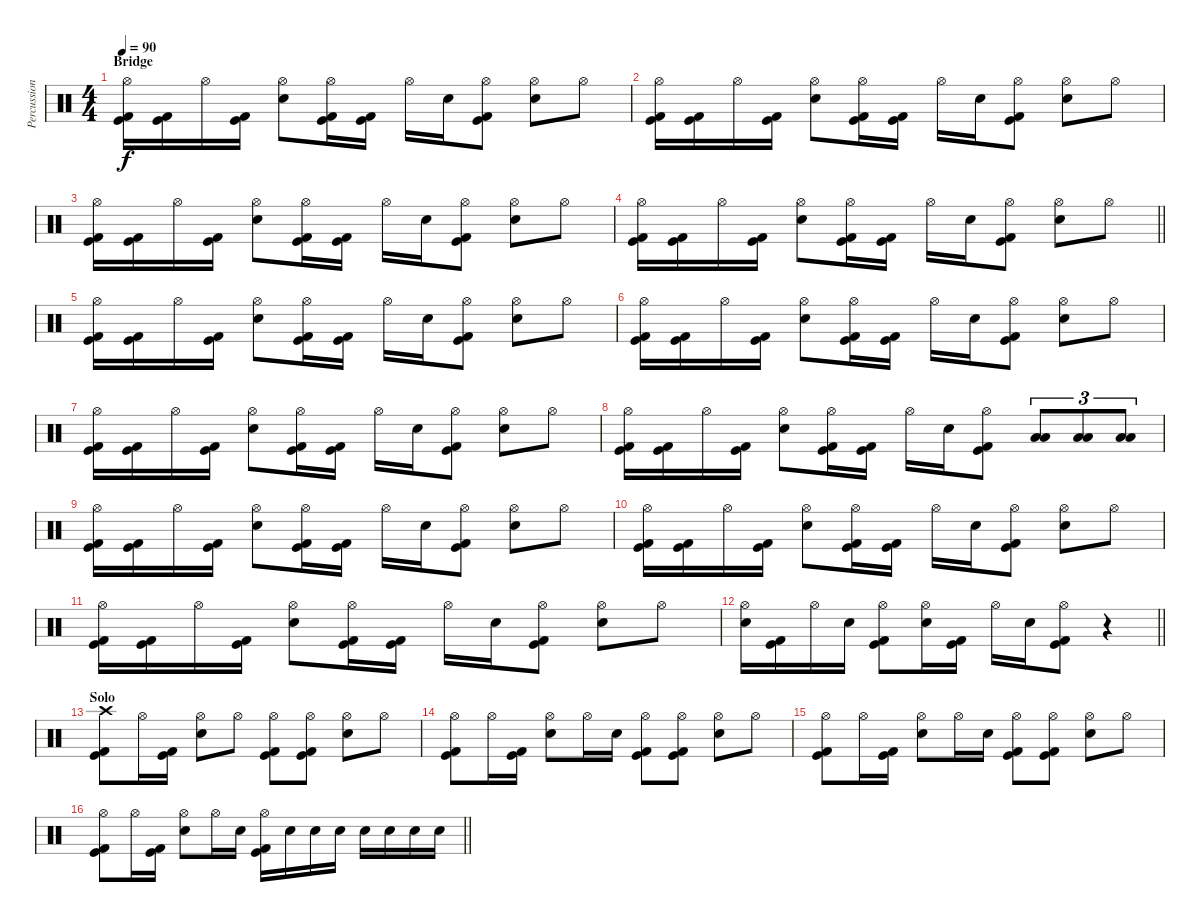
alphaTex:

\track ("Percussion" "Percussion") {instrument percussion}
\staff {score}
\articulation defaults
\ts (4 4)
\section ("" "Bridge")
\tempo 90
\clef neutral
\ks c
("Hi-Hat (open)" "Kick (hit)" "Kick (hit) 2").16{dy f} ("Kick (hit)" "Kick (hit) 2").16 "Hi-Hat (open)".16 ("Kick (hit)" "Kick (hit) 2").16 ("Hi-Hat (open)" "Electric Snare (hit)").8 ("Hi-Hat (open)" "Kick (hit)" "Kick (hit) 2").16 ("Kick (hit)" "Kick (hit) 2").16 "Hi-Hat (open)".16 "Electric Snare (hit)".16 ("Hi-Hat (open)" "Kick (hit)" "Kick (hit) 2").8 ("Hi-Hat (open)" "Electric Snare (hit)").8 "Hi-Hat (open)".8 |
("Hi-Hat (open)" "Kick (hit)" "Kick (hit) 2").16 ("Kick (hit)" "Kick (hit) 2").16 "Hi-Hat (open)".16 ("Kick (hit)" "Kick (hit) 2").16 ("Hi-Hat (open)" "Electric Snare (hit)").8 ("Hi-Hat (open)" "Kick (hit)" "Kick (hit) 2").16 ("Kick (hit)" "Kick (hit) 2").16 "Hi-Hat (open)".16 "Electric Snare (hit)".16 ("Hi-Hat (open)" "Kick (hit)" "Kick (hit) 2").8 ("Hi-Hat (open)" "Electric Snare (hit)").8 "Hi-Hat (open)".8 |
("Hi-Hat (open)" "Kick (hit)" "Kick (hit) 2").16 ("Kick (hit)" "Kick (hit) 2").16 "Hi-Hat (open)".16 ("Kick (hit)" "Kick (hit) 2").16 ("Hi-Hat (open)" "Electric Snare (hit)").8 ("Hi-Hat (open)" "Kick (hit)" "Kick (hit) 2").16 ("Kick (hit)" "Kick (hit) 2").16 "Hi-Hat (open)".16 "Electric Snare (hit)".16 ("Hi-Hat (open)" "Kick (hit)" "Kick (hit) 2").8 ("Hi-Hat (open)" "Electric Snare (hit)").8 "Hi-Hat (open)".8 |
\barLineRight lightlight
("Hi-Hat (open)" "Kick (hit)" "Kick (hit) 2").16 ("Kick (hit)" "Kick (hit) 2").16 "Hi-Hat (open)".16 ("Kick (hit)" "Kick (hit) 2").16 ("Hi-Hat (open)" "Electric Snare (hit)").8 ("Hi-Hat (open)" "Kick (hit)" "Kick (hit) 2").16 ("Kick (hit)" "Kick (hit) 2").16 "Hi-Hat (open)".16 "Electric Snare (hit)".16 ("Hi-Hat (open)" "Kick (hit)" "Kick (hit) 2").8 ("Hi-Hat (open)" "Electric Snare (hit)").8 "Hi-Hat (open)".8 |
\section ("" "")
("Hi-Hat (open)" "Kick (hit)" "Kick (hit) 2").16 ("Kick (hit)" "Kick (hit) 2").16 "Hi-Hat (open)".16 ("Kick (hit)" "Kick (hit) 2").16 ("Hi-Hat (open)" "Electric Snare (hit)").8 ("Hi-Hat (open)" "Kick (hit)" "Kick (hit) 2").16 ("Kick (hit)" "Kick (hit) 2").16 "Hi-Hat (open)".16 "Electric Snare (hit)".16 ("Hi-Hat (open)" "Kick (hit)" "Kick (hit) 2").8 ("Hi-Hat (open)" "Electric Snare (hit)").8 "Hi-Hat (open)".8 |
("Hi-Hat (open)" "Kick (hit)" "Kick (hit) 2").16 ("Kick (hit)" "Kick (hit) 2").16 "Hi-Hat (open)".16 ("Kick (hit)" "Kick (hit) 2").16 ("Hi-Hat (open)" "Electric Snare (hit)").8 ("Hi-Hat (open)" "Kick (hit)" "Kick (hit) 2").16 ("Kick (hit)" "Kick (hit) 2").16 "Hi-Hat (open)".16 "Electric Snare (hit)".16 ("Hi-Hat (open)" "Kick (hit)" "Kick (hit) 2").8 ("Hi-Hat (open)" "Electric Snare (hit)").8 "Hi-Hat (open)".8 |
("Hi-Hat (open)" "Kick (hit)" "Kick (hit) 2").16 ("Kick (hit)" "Kick (hit) 2").16 "Hi-Hat (open)".16 ("Kick (hit)" "Kick (hit) 2").16 ("Hi-Hat (open)" "Electric Snare (hit)").8 ("Hi-Hat (open)" "Kick (hit)" "Kick (hit) 2").16 ("Kick (hit)" "Kick (hit) 2").16 "Hi-Hat (open)".16 "Electric Snare (hit)".16 ("Hi-Hat (open)" "Kick (hit)" "Kick (hit) 2").8 ("Hi-Hat (open)" "Electric Snare (hit)").8 "Hi-Hat (open)".8 |
("Hi-Hat (open)" "Kick (hit)" "Kick (hit) 2").16 ("Kick (hit)" "Kick (hit) 2").16 "Hi-Hat (open)".16 ("Kick (hit)" "Kick (hit) 2").16 ("Hi-Hat (open)" "Electric Snare (hit)").8 ("Hi-Hat (open)" "Kick (hit)" "Kick (hit) 2").16 ("Kick (hit)" "Kick (hit) 2").16 "Hi-Hat (open)".16 "Electric Snare (hit)".16 ("Hi-Hat (open)" "Kick (hit)" "Kick (hit) 2").8 ("Low Tom (hit)" "Low Floor Tom (hit)").8{tu (3 2)} ("Low Tom (hit)" "Low Floor Tom (hit)").8{tu (3 2)} ("Low Tom (hit)" "Low Floor Tom (hit)").8{tu (3 2)} |
("Hi-Hat (open)" "Kick (hit)" "Kick (hit) 2").16 ("Kick (hit)" "Kick (hit) 2").16 "Hi-Hat (open)".16 ("Kick (hit)" "Kick (hit) 2").16 ("Hi-Hat (open)" "Electric Snare (hit)").8 ("Hi-Hat (open)" "Kick (hit)" "Kick (hit) 2").16 ("Kick (hit)" "Kick (hit) 2").16 "Hi-Hat (open)".16 "Electric Snare (hit)".16 ("Hi-Hat (open)" "Kick (hit)" "Kick (hit) 2").8 ("Hi-Hat (open)" "Electric Snare (hit)").8 "Hi-Hat (open)".8 |
("Hi-Hat (open)" "Kick (hit)" "Kick (hit) 2").16 ("Kick (hit)" "Kick (hit) 2").16 "Hi-Hat (open)".16 ("Kick (hit)" "Kick (hit) 2").16 ("Hi-Hat (open)" "Electric Snare (hit)").8 ("Hi-Hat (open)" "Kick (hit)" "Kick (hit) 2").16 ("Kick (hit)" "Kick (hit) 2").16 "Hi-Hat (open)".16 "Electric Snare (hit)".16 ("Hi-Hat (open)" "Kick (hit)" "Kick (hit) 2").8 ("Hi-Hat (open)" "Electric Snare (hit)").8 "Hi-Hat (open)".8 |
("Hi-Hat (open)" "Kick (hit)" "Kick (hit) 2").16 ("Kick (hit)" "Kick (hit) 2").16 "Hi-Hat (open)".16 ("Kick (hit)" "Kick (hit) 2").16 ("Hi-Hat (open)" "Electric Snare (hit)").8 ("Hi-Hat (open)" "Kick (hit)" "Kick (hit) 2").16 ("Kick (hit)" "Kick (hit) 2").16 "Hi-Hat (open)".16 "Electric Snare (hit)".16 ("Hi-Hat (open)" "Kick (hit)" "Kick (hit) 2").8 ("Hi-Hat (open)" "Electric Snare (hit)").8 "Hi-Hat (open)".8 |
\barLineRight lightlight
("Hi-Hat (open)" "Electric Snare (hit)").16 ("Kick (hit)" "Kick (hit) 2").16 "Hi-Hat (open)".16 "Electric Snare (hit)".16 ("Hi-Hat (open)" "Kick (hit)" "Kick (hit) 2").8 ("Hi-Hat (open)" "Electric Snare (hit)").16 ("Kick (hit)" "Kick (hit) 2").16 "Hi-Hat (open)".16 "Electric Snare (hit)".16 ("Hi-Hat (open)" "Kick (hit)" "Kick (hit) 2").8 r.4 |
\section ("" "Solo")
("Crash high (hit)" "Kick (hit)" "Kick (hit) 2").8 "Hi-Hat (open)".16 ("Kick (hit)" "Kick (hit) 2").16 ("Hi-Hat (open)" "Electric Snare (hit)").8 "Hi-Hat (open)".8 ("Hi-Hat (open)" "Kick (hit)" "Kick (hit) 2").8 ("Hi-Hat (open)" "Kick (hit)" "Kick (hit) 2").8 ("Hi-Hat (open)" "Electric Snare (hit)").8 "Hi-Hat (open)".8 |
("Hi-Hat (open)" "Kick (hit)" "Kick (hit) 2").8 "Hi-Hat (open)".16 ("Kick (hit)" "Kick (hit) 2").16 ("Hi-Hat (open)" "Electric Snare (hit)").8 "Hi-Hat (open)".16 "Electric Snare (hit)".16 ("Hi-Hat (open)" "Kick (hit)" "Kick (hit) 2").8 ("Hi-Hat (open)" "Kick (hit)" "Kick (hit) 2").8 ("Hi-Hat (open)" "Electric Snare (hit)").8 "Hi-Hat (open)".8 |
("Hi-Hat (open)" "Kick (hit)" "Kick (hit) 2").8 "Hi-Hat (open)".16 ("Kick (hit)" "Kick (hit) 2").16 ("Hi-Hat (open)" "Electric Snare (hit)").8 "Hi-Hat (open)".16 "Electric Snare (hit)".16 ("Hi-Hat (open)" "Kick (hit)" "Kick (hit) 2").8 ("Hi-Hat (open)" "Kick (hit)" "Kick (hit) 2").8 ("Hi-Hat (open)" "Electric Snare (hit)").8 "Hi-Hat (open)".8 |
\barLineRight lightlight
("Hi-Hat (open)" "Kick (hit)" "Kick (hit) 2").8 "Hi-Hat (open)".16 ("Kick (hit)" "Kick (hit) 2").16 ("Hi-Hat (open)" "Electric Snare (hit)").8 "Hi-Hat (open)".16 "Electric Snare (hit)".16 ("Hi-Hat (open)" "Kick (hit)" "Kick (hit) 2").16 "Electric Snare (hit)".16 "Electric Snare (hit)".16 "Electric Snare (hit)".16 "Electric Snare (hit)".16 "Electric Snare (hit)".16 "Electric Snare (hit)".16 "Electric Snare (hit)".16
